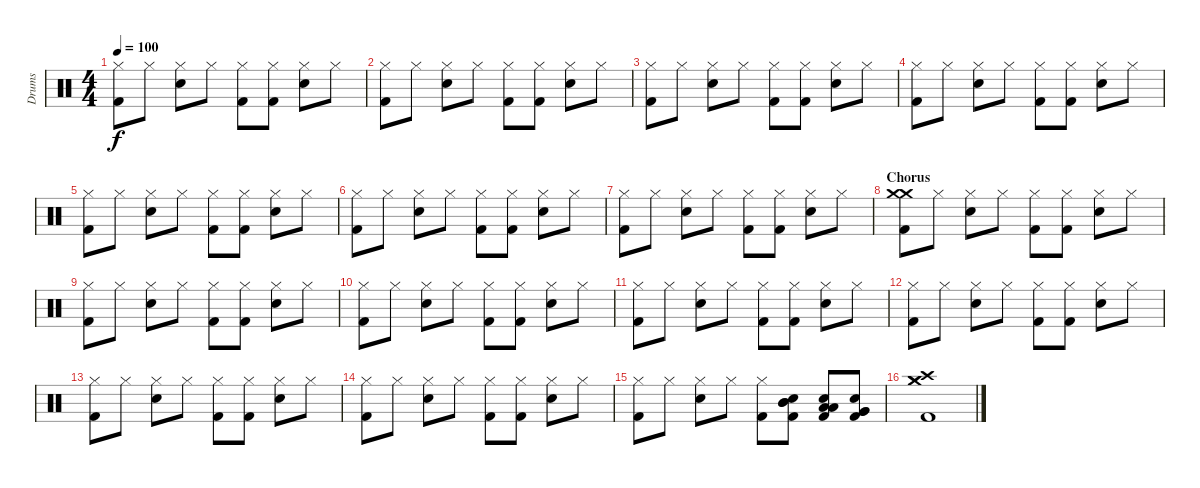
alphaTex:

\track ("Drums" "Drums") {instrument percussion}
\staff {score}
\articulation defaults
\ts (4 4)
\tempo 100
\clef neutral
\ks c
("Hi-Hat (closed)" "Kick (hit) 2").8{dy f} "Hi-Hat (closed)".8 ("Hi-Hat (closed)" "Electric Snare (hit)").8 "Hi-Hat (closed)".8 ("Hi-Hat (closed)" "Kick (hit) 2").8 ("Hi-Hat (closed)" "Kick (hit) 2").8 ("Hi-Hat (closed)" "Electric Snare (hit)").8 "Hi-Hat (closed)".8 |
("Hi-Hat (closed)" "Kick (hit) 2").8 "Hi-Hat (closed)".8 ("Hi-Hat (closed)" "Electric Snare (hit)").8 "Hi-Hat (closed)".8 ("Hi-Hat (closed)" "Kick (hit) 2").8 ("Hi-Hat (closed)" "Kick (hit) 2").8 ("Hi-Hat (closed)" "Electric Snare (hit)").8 "Hi-Hat (closed)".8 |
("Hi-Hat (closed)" "Kick (hit) 2").8 "Hi-Hat (closed)".8 ("Hi-Hat (closed)" "Electric Snare (hit)").8 "Hi-Hat (closed)".8 ("Hi-Hat (closed)" "Kick (hit) 2").8 ("Hi-Hat (closed)" "Kick (hit) 2").8 ("Hi-Hat (closed)" "Electric Snare (hit)").8 "Hi-Hat (closed)".8 |
("Hi-Hat (closed)" "Kick (hit) 2").8 "Hi-Hat (closed)".8 ("Hi-Hat (closed)" "Electric Snare (hit)").8 "Hi-Hat (closed)".8 ("Hi-Hat (closed)" "Kick (hit) 2").8 ("Hi-Hat (closed)" "Kick (hit) 2").8 ("Hi-Hat (closed)" "Electric Snare (hit)").8 "Hi-Hat (closed)".8 |
("Hi-Hat (closed)" "Kick (hit) 2").8 "Hi-Hat (closed)".8 ("Hi-Hat (closed)" "Electric Snare (hit)").8 "Hi-Hat (closed)".8 ("Hi-Hat (closed)" "Kick (hit) 2").8 ("Hi-Hat (closed)" "Kick (hit) 2").8 ("Hi-Hat (closed)" "Electric Snare (hit)").8 "Hi-Hat (closed)".8 |
("Hi-Hat (closed)" "Kick (hit) 2").8 "Hi-Hat (closed)".8 ("Hi-Hat (closed)" "Electric Snare (hit)").8 "Hi-Hat (closed)".8 ("Hi-Hat (closed)" "Kick (hit) 2").8 ("Hi-Hat (closed)" "Kick (hit) 2").8 ("Hi-Hat (closed)" "Electric Snare (hit)").8 "Hi-Hat (closed)".8 |
("Hi-Hat (closed)" "Kick (hit) 2").8 "Hi-Hat (closed)".8 ("Hi-Hat (closed)" "Electric Snare (hit)").8 "Hi-Hat (closed)".8 ("Hi-Hat (closed)" "Kick (hit) 2").8 ("Hi-Hat (closed)" "Kick (hit) 2").8 ("Hi-Hat (closed)" "Electric Snare (hit)").8 "Hi-Hat (closed)".8 |
\section ("" "Chorus")
("Crash medium (hit)" "Crash medium (hit)" "Kick (hit) 2").8 "Hi-Hat (closed)".8 ("Hi-Hat (closed)" "Electric Snare (hit)").8 "Hi-Hat (closed)".8 ("Hi-Hat (closed)" "Kick (hit) 2").8 ("Hi-Hat (closed)" "Kick (hit) 2").8 ("Hi-Hat (closed)" "Electric Snare (hit)").8 "Hi-Hat (closed)".8 |
("Hi-Hat (closed)" "Kick (hit) 2").8 "Hi-Hat (closed)".8 ("Hi-Hat (closed)" "Electric Snare (hit)").8 "Hi-Hat (closed)".8 ("Hi-Hat (closed)" "Kick (hit) 2").8 ("Hi-Hat (closed)" "Kick (hit) 2").8 ("Hi-Hat (closed)" "Electric Snare (hit)").8 "Hi-Hat (closed)".8 |
("Hi-Hat (closed)" "Kick (hit) 2").8 "Hi-Hat (closed)".8 ("Hi-Hat (closed)" "Electric Snare (hit)").8 "Hi-Hat (closed)".8 ("Hi-Hat (closed)" "Kick (hit) 2").8 ("Hi-Hat (closed)" "Kick (hit) 2").8 ("Hi-Hat (closed)" "Electric Snare (hit)").8 "Hi-Hat (closed)".8 |
("Hi-Hat (closed)" "Kick (hit) 2").8 "Hi-Hat (closed)".8 ("Hi-Hat (closed)" "Electric Snare (hit)").8 "Hi-Hat (closed)".8 ("Hi-Hat (closed)" "Kick (hit) 2").8 ("Hi-Hat (closed)" "Kick (hit) 2").8 ("Hi-Hat (closed)" "Electric Snare (hit)").8 "Hi-Hat (closed)".8 |
("Hi-Hat (closed)" "Kick (hit) 2").8 "Hi-Hat (closed)".8 ("Hi-Hat (closed)" "Electric Snare (hit)").8 "Hi-Hat (closed)".8 ("Hi-Hat (closed)" "Kick (hit) 2").8 ("Hi-Hat (closed)" "Kick (hit) 2").8 ("Hi-Hat (closed)" "Electric Snare (hit)").8 "Hi-Hat (closed)".8 |
("Hi-Hat (closed)" "Kick (hit) 2").8 "Hi-Hat (closed)".8 ("Hi-Hat (closed)" "Electric Snare (hit)").8 "Hi-Hat (closed)".8 ("Hi-Hat (closed)" "Kick (hit) 2").8 ("Hi-Hat (closed)" "Kick (hit) 2").8 ("Hi-Hat (closed)" "Electric Snare (hit)").8 "Hi-Hat (closed)".8 |
("Hi-Hat (closed)" "Kick (hit) 2").8 "Hi-Hat (closed)".8 ("Hi-Hat (closed)" "Electric Snare (hit)").8 "Hi-Hat (closed)".8 ("Hi-Hat (closed)" "Kick (hit) 2").8 ("Hi-Hat (closed)" "Kick (hit) 2").8 ("Hi-Hat (closed)" "Electric Snare (hit)").8 "Hi-Hat (closed)".8 |
("Hi-Hat (closed)" "Kick (hit) 2").8 "Hi-Hat (closed)".8 ("Hi-Hat (closed)" "Electric Snare (hit)").8 "Hi-Hat (closed)".8 ("Hi-Hat (closed)" "Kick (hit) 2").8 ("Mid Tom (hit)" "Mid Tom (hit)" "Electric Snare (hit)" "Kick (hit) 2").8 ("Low Tom (hit)" "Low Tom (hit)" "Electric Snare (hit)" "Kick (hit) 2").8 ("Electric Snare (hit)" "Very Low Tom (hit)" "Very Low Tom (hit)" "Kick (hit) 2").8 |
("Crash high (hit)" "Crash medium (hit)" "Crash medium (hit)" "Kick (hit) 2").1
